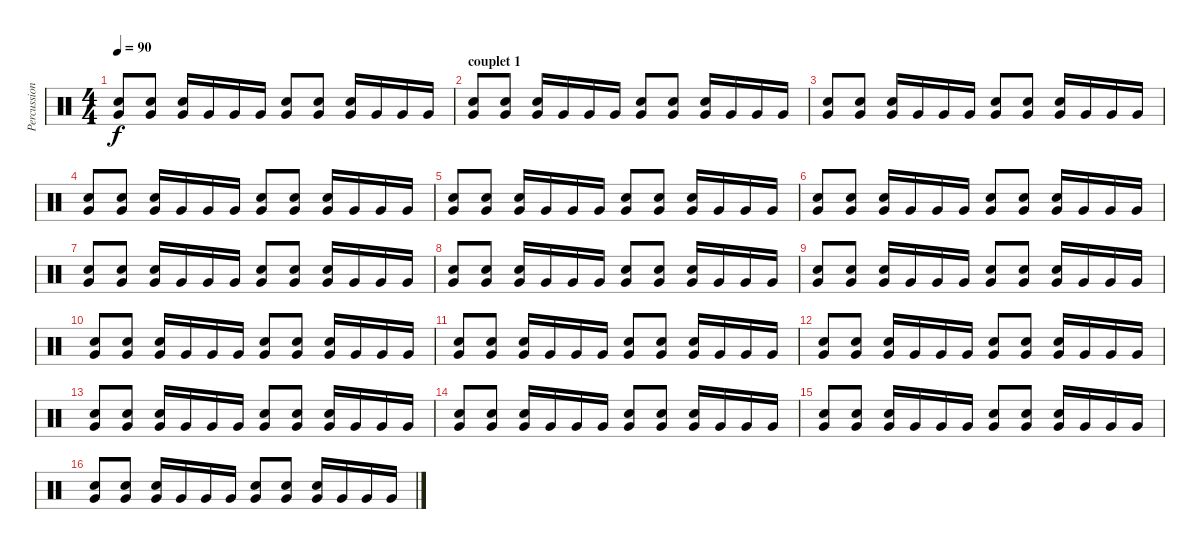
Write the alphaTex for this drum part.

\track ("Percussions" "Percussion") {instrument percussion}
\staff {score}
\articulation defaults
\ts (4 4)
\tempo 90
\clef neutral
\ks c
("Hand Clap (hit)" "Very Low Tom (hit)").8{dy f} ("Hand Clap (hit)" "Very Low Tom (hit)").8 ("Hand Clap (hit)" "Very Low Tom (hit)").16 "Very Low Tom (hit)".16 "Very Low Tom (hit)".16 "Very Low Tom (hit)".16 ("Hand Clap (hit)" "Very Low Tom (hit)").8 ("Hand Clap (hit)" "Very Low Tom (hit)").8 ("Hand Clap (hit)" "Very Low Tom (hit)").16 "Very Low Tom (hit)".16 "Very Low Tom (hit)".16 "Very Low Tom (hit)".16 |
\section ("" "couplet 1")
("Hand Clap (hit)" "Very Low Tom (hit)").8 ("Hand Clap (hit)" "Very Low Tom (hit)").8 ("Hand Clap (hit)" "Very Low Tom (hit)").16 "Very Low Tom (hit)".16 "Very Low Tom (hit)".16 "Very Low Tom (hit)".16 ("Hand Clap (hit)" "Very Low Tom (hit)").8 ("Hand Clap (hit)" "Very Low Tom (hit)").8 ("Hand Clap (hit)" "Very Low Tom (hit)").16 "Very Low Tom (hit)".16 "Very Low Tom (hit)".16 "Very Low Tom (hit)".16 |
("Hand Clap (hit)" "Very Low Tom (hit)").8 ("Hand Clap (hit)" "Very Low Tom (hit)").8 ("Hand Clap (hit)" "Very Low Tom (hit)").16 "Very Low Tom (hit)".16 "Very Low Tom (hit)".16 "Very Low Tom (hit)".16 ("Hand Clap (hit)" "Very Low Tom (hit)").8 ("Hand Clap (hit)" "Very Low Tom (hit)").8 ("Hand Clap (hit)" "Very Low Tom (hit)").16 "Very Low Tom (hit)".16 "Very Low Tom (hit)".16 "Very Low Tom (hit)".16 |
("Hand Clap (hit)" "Very Low Tom (hit)").8 ("Hand Clap (hit)" "Very Low Tom (hit)").8 ("Hand Clap (hit)" "Very Low Tom (hit)").16 "Very Low Tom (hit)".16 "Very Low Tom (hit)".16 "Very Low Tom (hit)".16 ("Hand Clap (hit)" "Very Low Tom (hit)").8 ("Hand Clap (hit)" "Very Low Tom (hit)").8 ("Hand Clap (hit)" "Very Low Tom (hit)").16 "Very Low Tom (hit)".16 "Very Low Tom (hit)".16 "Very Low Tom (hit)".16 |
("Hand Clap (hit)" "Very Low Tom (hit)").8 ("Hand Clap (hit)" "Very Low Tom (hit)").8 ("Hand Clap (hit)" "Very Low Tom (hit)").16 "Very Low Tom (hit)".16 "Very Low Tom (hit)".16 "Very Low Tom (hit)".16 ("Hand Clap (hit)" "Very Low Tom (hit)").8 ("Hand Clap (hit)" "Very Low Tom (hit)").8 ("Hand Clap (hit)" "Very Low Tom (hit)").16 "Very Low Tom (hit)".16 "Very Low Tom (hit)".16 "Very Low Tom (hit)".16 |
("Hand Clap (hit)" "Very Low Tom (hit)").8 ("Hand Clap (hit)" "Very Low Tom (hit)").8 ("Hand Clap (hit)" "Very Low Tom (hit)").16 "Very Low Tom (hit)".16 "Very Low Tom (hit)".16 "Very Low Tom (hit)".16 ("Hand Clap (hit)" "Very Low Tom (hit)").8 ("Hand Clap (hit)" "Very Low Tom (hit)").8 ("Hand Clap (hit)" "Very Low Tom (hit)").16 "Very Low Tom (hit)".16 "Very Low Tom (hit)".16 "Very Low Tom (hit)".16 |
("Hand Clap (hit)" "Very Low Tom (hit)").8 ("Hand Clap (hit)" "Very Low Tom (hit)").8 ("Hand Clap (hit)" "Very Low Tom (hit)").16 "Very Low Tom (hit)".16 "Very Low Tom (hit)".16 "Very Low Tom (hit)".16 ("Hand Clap (hit)" "Very Low Tom (hit)").8 ("Hand Clap (hit)" "Very Low Tom (hit)").8 ("Hand Clap (hit)" "Very Low Tom (hit)").16 "Very Low Tom (hit)".16 "Very Low Tom (hit)".16 "Very Low Tom (hit)".16 |
("Hand Clap (hit)" "Very Low Tom (hit)").8 ("Hand Clap (hit)" "Very Low Tom (hit)").8 ("Hand Clap (hit)" "Very Low Tom (hit)").16 "Very Low Tom (hit)".16 "Very Low Tom (hit)".16 "Very Low Tom (hit)".16 ("Hand Clap (hit)" "Very Low Tom (hit)").8 ("Hand Clap (hit)" "Very Low Tom (hit)").8 ("Hand Clap (hit)" "Very Low Tom (hit)").16 "Very Low Tom (hit)".16 "Very Low Tom (hit)".16 "Very Low Tom (hit)".16 |
("Hand Clap (hit)" "Very Low Tom (hit)").8 ("Hand Clap (hit)" "Very Low Tom (hit)").8 ("Hand Clap (hit)" "Very Low Tom (hit)").16 "Very Low Tom (hit)".16 "Very Low Tom (hit)".16 "Very Low Tom (hit)".16 ("Hand Clap (hit)" "Very Low Tom (hit)").8 ("Hand Clap (hit)" "Very Low Tom (hit)").8 ("Hand Clap (hit)" "Very Low Tom (hit)").16 "Very Low Tom (hit)".16 "Very Low Tom (hit)".16 "Very Low Tom (hit)".16 |
("Hand Clap (hit)" "Very Low Tom (hit)").8 ("Hand Clap (hit)" "Very Low Tom (hit)").8 ("Hand Clap (hit)" "Very Low Tom (hit)").16 "Very Low Tom (hit)".16 "Very Low Tom (hit)".16 "Very Low Tom (hit)".16 ("Hand Clap (hit)" "Very Low Tom (hit)").8 ("Hand Clap (hit)" "Very Low Tom (hit)").8 ("Hand Clap (hit)" "Very Low Tom (hit)").16 "Very Low Tom (hit)".16 "Very Low Tom (hit)".16 "Very Low Tom (hit)".16 |
("Hand Clap (hit)" "Very Low Tom (hit)").8 ("Hand Clap (hit)" "Very Low Tom (hit)").8 ("Hand Clap (hit)" "Very Low Tom (hit)").16 "Very Low Tom (hit)".16 "Very Low Tom (hit)".16 "Very Low Tom (hit)".16 ("Hand Clap (hit)" "Very Low Tom (hit)").8 ("Hand Clap (hit)" "Very Low Tom (hit)").8 ("Hand Clap (hit)" "Very Low Tom (hit)").16 "Very Low Tom (hit)".16 "Very Low Tom (hit)".16 "Very Low Tom (hit)".16 |
("Hand Clap (hit)" "Very Low Tom (hit)").8 ("Hand Clap (hit)" "Very Low Tom (hit)").8 ("Hand Clap (hit)" "Very Low Tom (hit)").16 "Very Low Tom (hit)".16 "Very Low Tom (hit)".16 "Very Low Tom (hit)".16 ("Hand Clap (hit)" "Very Low Tom (hit)").8 ("Hand Clap (hit)" "Very Low Tom (hit)").8 ("Hand Clap (hit)" "Very Low Tom (hit)").16 "Very Low Tom (hit)".16 "Very Low Tom (hit)".16 "Very Low Tom (hit)".16 |
("Hand Clap (hit)" "Very Low Tom (hit)").8 ("Hand Clap (hit)" "Very Low Tom (hit)").8 ("Hand Clap (hit)" "Very Low Tom (hit)").16 "Very Low Tom (hit)".16 "Very Low Tom (hit)".16 "Very Low Tom (hit)".16 ("Hand Clap (hit)" "Very Low Tom (hit)").8 ("Hand Clap (hit)" "Very Low Tom (hit)").8 ("Hand Clap (hit)" "Very Low Tom (hit)").16 "Very Low Tom (hit)".16 "Very Low Tom (hit)".16 "Very Low Tom (hit)".16 |
("Hand Clap (hit)" "Very Low Tom (hit)").8 ("Hand Clap (hit)" "Very Low Tom (hit)").8 ("Hand Clap (hit)" "Very Low Tom (hit)").16 "Very Low Tom (hit)".16 "Very Low Tom (hit)".16 "Very Low Tom (hit)".16 ("Hand Clap (hit)" "Very Low Tom (hit)").8 ("Hand Clap (hit)" "Very Low Tom (hit)").8 ("Hand Clap (hit)" "Very Low Tom (hit)").16 "Very Low Tom (hit)".16 "Very Low Tom (hit)".16 "Very Low Tom (hit)".16 |
("Hand Clap (hit)" "Very Low Tom (hit)").8 ("Hand Clap (hit)" "Very Low Tom (hit)").8 ("Hand Clap (hit)" "Very Low Tom (hit)").16 "Very Low Tom (hit)".16 "Very Low Tom (hit)".16 "Very Low Tom (hit)".16 ("Hand Clap (hit)" "Very Low Tom (hit)").8 ("Hand Clap (hit)" "Very Low Tom (hit)").8 ("Hand Clap (hit)" "Very Low Tom (hit)").16 "Very Low Tom (hit)".16 "Very Low Tom (hit)".16 "Very Low Tom (hit)".16 |
("Hand Clap (hit)" "Very Low Tom (hit)").8 ("Hand Clap (hit)" "Very Low Tom (hit)").8 ("Hand Clap (hit)" "Very Low Tom (hit)").16 "Very Low Tom (hit)".16 "Very Low Tom (hit)".16 "Very Low Tom (hit)".16 ("Hand Clap (hit)" "Very Low Tom (hit)").8 ("Hand Clap (hit)" "Very Low Tom (hit)").8 ("Hand Clap (hit)" "Very Low Tom (hit)").16 "Very Low Tom (hit)".16 "Very Low Tom (hit)".16 "Very Low Tom (hit)".16
